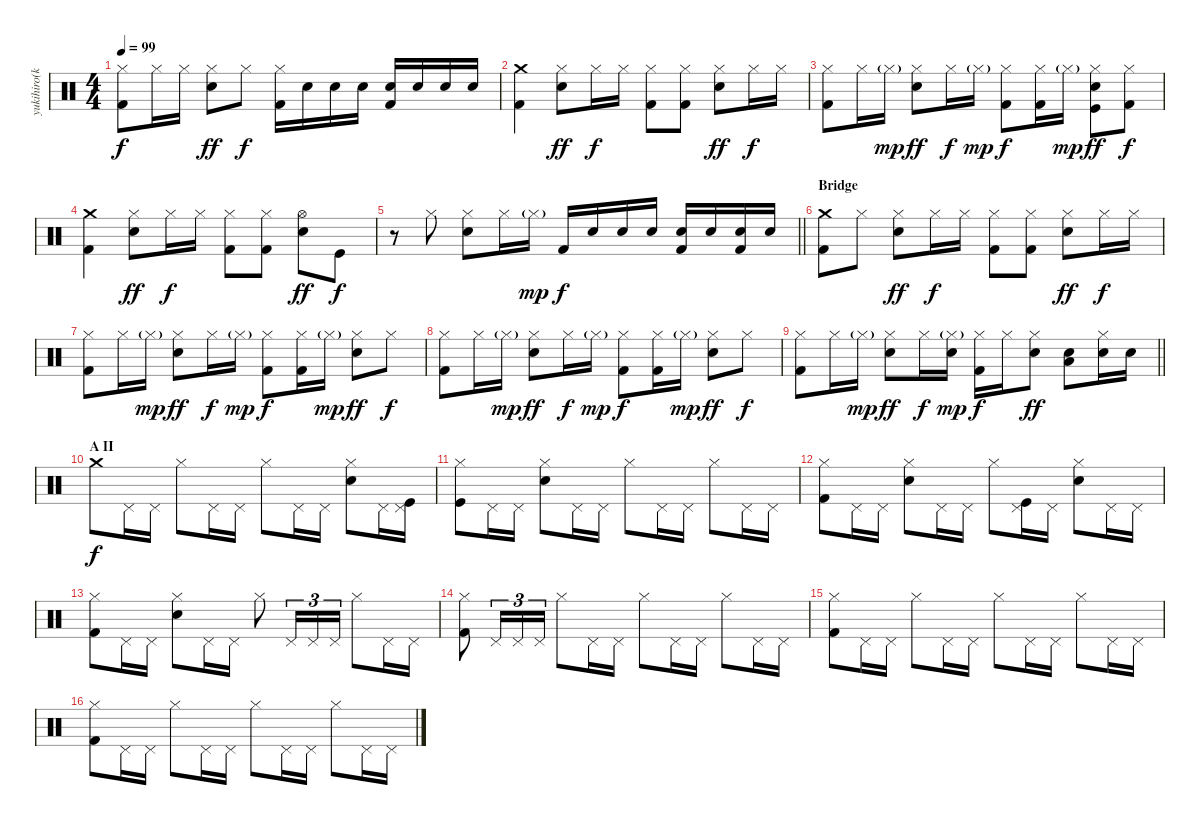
\track ("yukihiro(kami)" "yukihiro(k") {instrument percussion}
\staff {score}
\articulation defaults
\ts (4 4)
\tempo 99
\clef neutral
\ks c
("Hi-Hat (closed)" "Kick (hit) 2").8{dy f} "Hi-Hat (closed)".16 "Hi-Hat (closed)".16 ("Hi-Hat (closed)" "Snare (hit) 2").8{dy ff} "Hi-Hat (closed)".8{dy f} ("Hi-Hat (closed)" "Kick (hit) 2").16 "Snare (hit) 2".16 "Snare (hit) 2".16 "Snare (hit) 2".16 ("Snare (hit) 2" "Kick (hit) 2").16 "Snare (hit) 2".16 "Snare (hit) 2".16 "Snare (hit) 2".16 |
("Crash medium (hit)" "Kick (hit) 2").4 ("Hi-Hat (closed)" "Snare (hit) 2").8{dy ff} "Hi-Hat (closed)".16{dy f} "Hi-Hat (closed)".16 ("Hi-Hat (closed)" "Kick (hit) 2").8 ("Hi-Hat (closed)" "Kick (hit) 2").8 ("Hi-Hat (closed)" "Snare (hit) 2").8{dy ff} "Hi-Hat (closed)".16{dy f} "Hi-Hat (closed)".16 |
("Hi-Hat (closed)" "Kick (hit) 2").8 "Hi-Hat (closed)".16 "Hi-Hat (closed)"{g}.16{dy mp} ("Hi-Hat (closed)" "Snare (hit) 2").8{dy ff} "Hi-Hat (closed)".16{dy f} "Hi-Hat (closed)"{g}.16{dy mp} ("Hi-Hat (closed)" "Kick (hit) 2").8{dy f} ("Hi-Hat (closed)" "Kick (hit) 2").16 "Hi-Hat (closed)"{g}.16{dy mp} ("Hi-Hat (closed)" "Snare (hit) 2" "Kick (hit)").8{dy ff} ("Hi-Hat (closed)" "Kick (hit) 2").8{dy f} |
("Crash medium (hit)" "Kick (hit) 2").4 ("Hi-Hat (closed)" "Snare (hit) 2").8{dy ff} "Hi-Hat (closed)".16{dy f} "Hi-Hat (closed)".16 ("Hi-Hat (closed)" "Kick (hit) 2").8 ("Hi-Hat (closed)" "Kick (hit) 2").8 ("Hi-Hat (open)" "Snare (hit) 2").8{dy ff} "Kick (hit)".8{dy f} |
\barLineRight lightlight
r.8 "Hi-Hat (closed)".8 ("Hi-Hat (closed)" "Snare (hit) 2").8 "Hi-Hat (closed)".16 "Hi-Hat (closed)"{g}.16{dy mp} "Kick (hit) 2".16{dy f} "Snare (hit) 2".16 "Snare (hit) 2".16 "Snare (hit) 2".16 ("Snare (hit) 2" "Kick (hit) 2").16 "Snare (hit) 2".16 ("Snare (hit) 2" "Kick (hit) 2").16 "Snare (hit) 2".16 |
\section ("" "Bridge")
("Crash medium (hit)" "Kick (hit) 2").8 "Hi-Hat (closed)".8 ("Hi-Hat (closed)" "Snare (hit) 2").8{dy ff} "Hi-Hat (closed)".16{dy f} "Hi-Hat (closed)".16 ("Hi-Hat (closed)" "Kick (hit) 2").8 ("Hi-Hat (closed)" "Kick (hit) 2").8 ("Hi-Hat (closed)" "Snare (hit) 2").8{dy ff} "Hi-Hat (closed)".16{dy f} "Hi-Hat (closed)".16 |
("Hi-Hat (closed)" "Kick (hit) 2").8 "Hi-Hat (closed)".16 "Hi-Hat (closed)"{g}.16{dy mp} ("Hi-Hat (closed)" "Snare (hit) 2").8{dy ff} "Hi-Hat (closed)".16{dy f} "Hi-Hat (closed)"{g}.16{dy mp} ("Hi-Hat (closed)" "Kick (hit) 2").8{dy f} ("Hi-Hat (closed)" "Kick (hit) 2").16 "Hi-Hat (closed)"{g}.16{dy mp} ("Hi-Hat (closed)" "Snare (hit) 2").8{dy ff} "Hi-Hat (closed)".8{dy f} |
("Hi-Hat (closed)" "Kick (hit) 2").8 "Hi-Hat (closed)".16 "Hi-Hat (closed)"{g}.16{dy mp} ("Hi-Hat (closed)" "Snare (hit) 2").8{dy ff} "Hi-Hat (closed)".16{dy f} "Hi-Hat (closed)"{g}.16{dy mp} ("Hi-Hat (closed)" "Kick (hit) 2").8{dy f} ("Hi-Hat (closed)" "Kick (hit) 2").16 "Hi-Hat (closed)"{g}.16{dy mp} ("Hi-Hat (closed)" "Snare (hit) 2").8{dy ff} "Hi-Hat (closed)".8{dy f} |
\barLineRight lightlight
("Hi-Hat (closed)" "Kick (hit) 2").8 "Hi-Hat (closed)".16 "Hi-Hat (closed)"{g}.16{dy mp} ("Hi-Hat (closed)" "Snare (hit) 2").8{dy ff} "Hi-Hat (closed)".16{dy f} ("Hi-Hat (closed)"{g} "Electric Snare (hit)").16{dy mp} ("Hi-Hat (closed)" "Kick (hit) 2").16{dy f} "Hi-Hat (closed)".16 ("Hi-Hat (closed)" "Snare (hit) 2").8{dy ff} ("Snare (hit) 2" "Low Tom (hit)").8 ("Hi-Hat (closed)" "Snare (hit) 2").16 "Snare (hit) 2".16 |
\section ("" "A II")
"Crash medium (hit)".8{dy f} "Pedal Hi-Hat (hit)".16 "Pedal Hi-Hat (hit)".16 "Hi-Hat (closed)".8 "Pedal Hi-Hat (hit)".16 "Pedal Hi-Hat (hit)".16 "Hi-Hat (closed)".8 "Pedal Hi-Hat (hit)".16 "Pedal Hi-Hat (hit)".16 ("Hi-Hat (closed)" "Electric Snare (hit)").8 "Pedal Hi-Hat (hit)".16 ("Pedal Hi-Hat (hit)" "Kick (hit)").16 |
("Hi-Hat (closed)" "Kick (hit)").8 "Pedal Hi-Hat (hit)".16 "Pedal Hi-Hat (hit)".16 ("Hi-Hat (closed)" "Electric Snare (hit)").8 "Pedal Hi-Hat (hit)".16 "Pedal Hi-Hat (hit)".16 "Hi-Hat (closed)".8 "Pedal Hi-Hat (hit)".16 "Pedal Hi-Hat (hit)".16 "Hi-Hat (closed)".8 "Pedal Hi-Hat (hit)".16 "Pedal Hi-Hat (hit)".16 |
("Hi-Hat (closed)" "Kick (hit) 2").8 "Pedal Hi-Hat (hit)".16 "Pedal Hi-Hat (hit)".16 ("Hi-Hat (closed)" "Electric Snare (hit)").8 "Pedal Hi-Hat (hit)".16 "Pedal Hi-Hat (hit)".16 "Hi-Hat (closed)".8 ("Pedal Hi-Hat (hit)" "Kick (hit)").16 "Pedal Hi-Hat (hit)".16 ("Hi-Hat (closed)" "Electric Snare (hit)").8 "Pedal Hi-Hat (hit)".16 "Pedal Hi-Hat (hit)".16 |
("Hi-Hat (closed)" "Kick (hit) 2").8 "Pedal Hi-Hat (hit)".16 "Pedal Hi-Hat (hit)".16 ("Hi-Hat (closed)" "Electric Snare (hit)").8 "Pedal Hi-Hat (hit)".16 "Pedal Hi-Hat (hit)".16 "Hi-Hat (closed)".8 "Pedal Hi-Hat (hit)".16{tu (3 2)} "Pedal Hi-Hat (hit)".16{tu (3 2)} "Pedal Hi-Hat (hit)".16{tu (3 2)} "Hi-Hat (closed)".8 "Pedal Hi-Hat (hit)".16 "Pedal Hi-Hat (hit)".16 |
("Hi-Hat (closed)" "Kick (hit) 2").8 "Pedal Hi-Hat (hit)".16{tu (3 2)} "Pedal Hi-Hat (hit)".16{tu (3 2)} "Pedal Hi-Hat (hit)".16{tu (3 2)} "Hi-Hat (closed)".8 "Pedal Hi-Hat (hit)".16 "Pedal Hi-Hat (hit)".16 "Hi-Hat (closed)".8 "Pedal Hi-Hat (hit)".16 "Pedal Hi-Hat (hit)".16 "Hi-Hat (closed)".8 "Pedal Hi-Hat (hit)".16 "Pedal Hi-Hat (hit)".16 |
("Hi-Hat (closed)" "Kick (hit) 2").8 "Pedal Hi-Hat (hit)".16 "Pedal Hi-Hat (hit)".16 "Hi-Hat (closed)".8 "Pedal Hi-Hat (hit)".16 "Pedal Hi-Hat (hit)".16 "Hi-Hat (closed)".8 "Pedal Hi-Hat (hit)".16 "Pedal Hi-Hat (hit)".16 "Hi-Hat (closed)".8 "Pedal Hi-Hat (hit)".16 "Pedal Hi-Hat (hit)".16 |
("Hi-Hat (closed)" "Kick (hit) 2").8 "Pedal Hi-Hat (hit)".16 "Pedal Hi-Hat (hit)".16 "Hi-Hat (closed)".8 "Pedal Hi-Hat (hit)".16 "Pedal Hi-Hat (hit)".16 "Hi-Hat (closed)".8 "Pedal Hi-Hat (hit)".16 "Pedal Hi-Hat (hit)".16 "Hi-Hat (closed)".8 "Pedal Hi-Hat (hit)".16 "Pedal Hi-Hat (hit)".16
